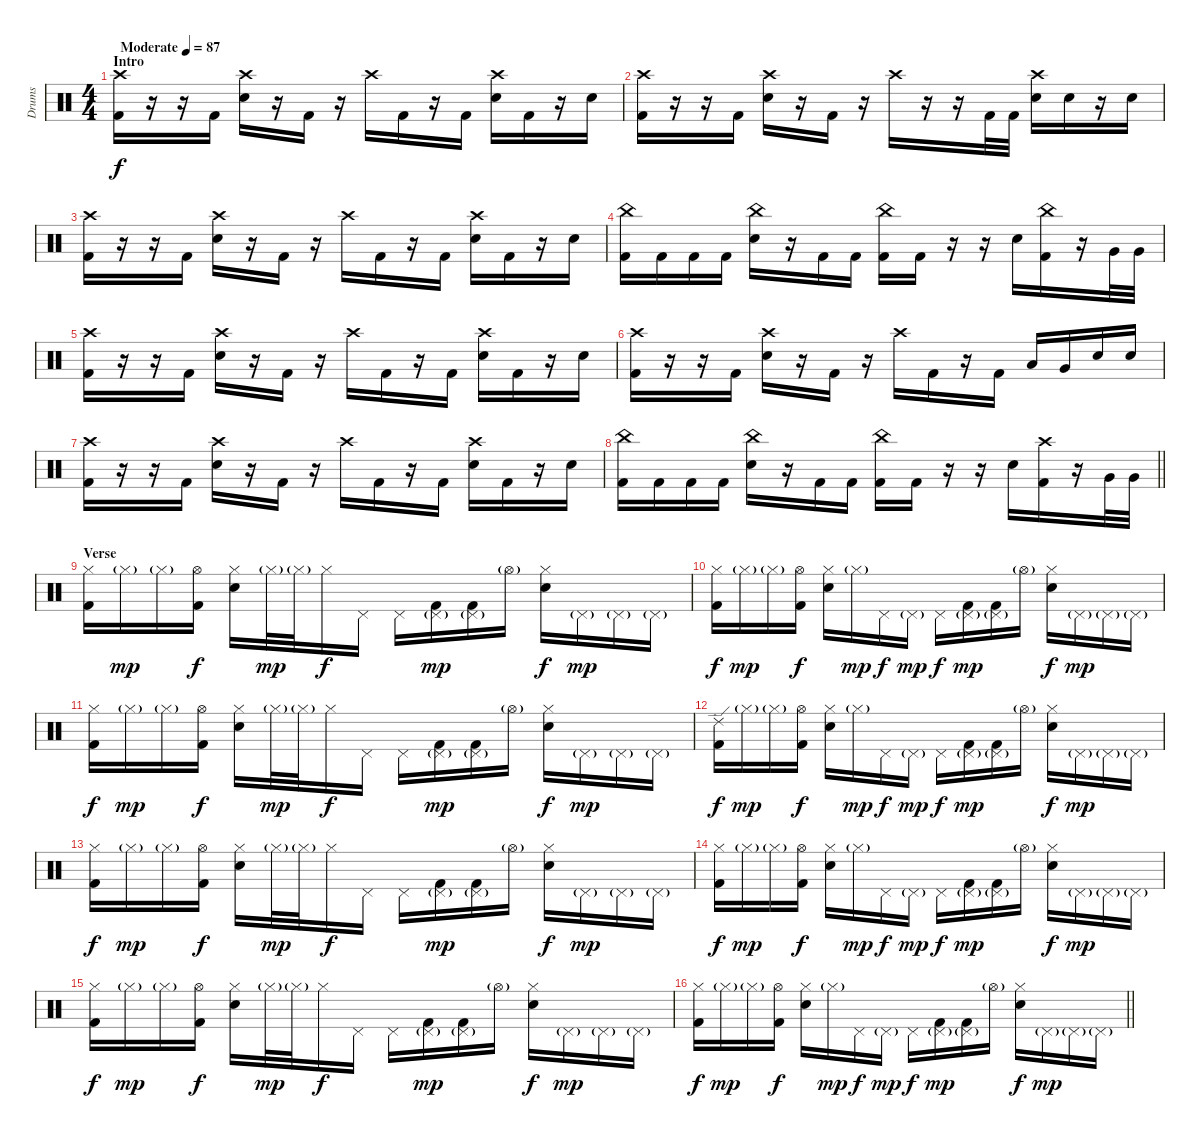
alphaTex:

\track ("Drums" "Drums") {instrument percussion}
\staff {score}
\articulation defaults
\ts (4 4)
\section ("" "Intro")
\tempo (87 "Moderate")
\clef neutral
\ks c
("Crash high (hit)" "Kick (hit) 2").16{dy f} r.16 r.16 "Kick (hit) 2".16 ("Crash high (hit)" "Electric Snare (hit)").16 r.16 "Kick (hit) 2".16 r.16 "Crash high (hit)".16 "Kick (hit) 2".16 r.16 "Kick (hit) 2".16 ("Crash high (hit)" "Electric Snare (hit)").16 "Kick (hit) 2".16 r.16 "Electric Snare (hit)".16 |
("Crash high (hit)" "Kick (hit) 2").16 r.16 r.16 "Kick (hit) 2".16 ("Crash high (hit)" "Electric Snare (hit)").16 r.16 "Kick (hit) 2".16 r.16 "Crash high (hit)".16 r.16 r.16 "Kick (hit) 2".32 "Kick (hit) 2".32 ("Crash high (hit)" "Electric Snare (hit)").16 "Electric Snare (hit)".16 r.16 "Electric Snare (hit)".16 |
("Crash high (hit)" "Kick (hit) 2").16 r.16 r.16 "Kick (hit) 2".16 ("Crash high (hit)" "Electric Snare (hit)").16 r.16 "Kick (hit) 2".16 r.16 "Crash high (hit)".16 "Kick (hit) 2".16 r.16 "Kick (hit) 2".16 ("Crash high (hit)" "Electric Snare (hit)").16 "Kick (hit) 2".16 r.16 "Electric Snare (hit)".16 |
("China (hit)" "Kick (hit) 2").16 "Kick (hit) 2".16 "Kick (hit) 2".16 "Kick (hit) 2".16 ("China (hit)" "Electric Snare (hit)").16 r.16 "Kick (hit) 2".16 "Kick (hit) 2".16 ("China (hit)" "Kick (hit) 2").16 "Kick (hit) 2".16 r.16 r.16 "Electric Snare (hit)".16 ("China (hit)" "Kick (hit) 2").16 r.16 "Very Low Tom (hit)".32 "Very Low Tom (hit)".32 |
("Crash high (hit)" "Kick (hit) 2").16 r.16 r.16 "Kick (hit) 2".16 ("Crash high (hit)" "Electric Snare (hit)").16 r.16 "Kick (hit) 2".16 r.16 "Crash high (hit)".16 "Kick (hit) 2".16 r.16 "Kick (hit) 2".16 ("Crash high (hit)" "Electric Snare (hit)").16 "Kick (hit) 2".16 r.16 "Electric Snare (hit)".16 |
("Crash high (hit)" "Kick (hit) 2").16 r.16 r.16 "Kick (hit) 2".16 ("Crash high (hit)" "Electric Snare (hit)").16 r.16 "Kick (hit) 2".16 r.16 "Crash high (hit)".16 "Kick (hit) 2".16 r.16 "Kick (hit) 2".16 "Low Tom (hit)".16 "Very Low Tom (hit)".16 "Electric Snare (hit)".16 "Electric Snare (hit)".16 |
("Crash high (hit)" "Kick (hit) 2").16 r.16 r.16 "Kick (hit) 2".16 ("Crash high (hit)" "Electric Snare (hit)").16 r.16 "Kick (hit) 2".16 r.16 "Crash high (hit)".16 "Kick (hit) 2".16 r.16 "Kick (hit) 2".16 ("Crash high (hit)" "Electric Snare (hit)").16 "Kick (hit) 2".16 r.16 "Electric Snare (hit)".16 |
\barLineRight lightlight
("China (hit)" "Kick (hit) 2").16 "Kick (hit) 2".16 "Kick (hit) 2".16 "Kick (hit) 2".16 ("China (hit)" "Electric Snare (hit)").16 r.16 "Kick (hit) 2".16 "Kick (hit) 2".16 ("China (hit)" "Kick (hit) 2").16 "Kick (hit) 2".16 r.16 r.16 "Electric Snare (hit)".16 ("Crash high (hit)" "Kick (hit) 2").16 r.16 "Very Low Tom (hit)".32 "Very Low Tom (hit)".32 |
\section ("" "Verse")
("Hi-Hat (closed)" "Kick (hit) 2").16 "Hi-Hat (closed)"{g}.16{dy mp} "Hi-Hat (closed)"{g}.16 ("Hi-Hat (open)" "Kick (hit) 2").16{dy f} ("Hi-Hat (closed)" "Electric Snare (hit)").16 "Hi-Hat (closed)"{g}.32{dy mp} "Hi-Hat (closed)"{g}.32 "Hi-Hat (closed)".16{dy f} "Pedal Hi-Hat (hit)".16 "Pedal Hi-Hat (hit)".16 ("Pedal Hi-Hat (hit)"{g} "Kick (hit) 2").16{dy mp} ("Pedal Hi-Hat (hit)"{g} "Kick (hit) 2").16 "Hi-Hat (open)"{g}.16 ("Hi-Hat (closed)" "Electric Snare (hit)").16{dy f} "Pedal Hi-Hat (hit)"{g}.16{dy mp} "Pedal Hi-Hat (hit)"{g}.16 "Pedal Hi-Hat (hit)"{g}.16 |
("Hi-Hat (closed)" "Kick (hit) 2").16{dy f} "Hi-Hat (closed)"{g}.16{dy mp} "Hi-Hat (closed)"{g}.16 ("Hi-Hat (open)" "Kick (hit) 2").16{dy f} ("Hi-Hat (closed)" "Electric Snare (hit)").16 "Hi-Hat (closed)"{g}.16{dy mp} "Pedal Hi-Hat (hit)".16{dy f} "Pedal Hi-Hat (hit)"{g}.16{dy mp} "Pedal Hi-Hat (hit)".16{dy f} ("Pedal Hi-Hat (hit)"{g} "Kick (hit) 2").16{dy mp} ("Pedal Hi-Hat (hit)"{g} "Kick (hit) 2").16 "Hi-Hat (open)"{g}.16 ("Hi-Hat (closed)" "Electric Snare (hit)").16{dy f} "Pedal Hi-Hat (hit)"{g}.16{dy mp} "Pedal Hi-Hat (hit)"{g}.16 "Pedal Hi-Hat (hit)"{g}.16 |
("Hi-Hat (closed)" "Kick (hit) 2").16{dy f} "Hi-Hat (closed)"{g}.16{dy mp} "Hi-Hat (closed)"{g}.16 ("Hi-Hat (open)" "Kick (hit) 2").16{dy f} ("Hi-Hat (closed)" "Electric Snare (hit)").16 "Hi-Hat (closed)"{g}.32{dy mp} "Hi-Hat (closed)"{g}.32 "Hi-Hat (closed)".16{dy f} "Pedal Hi-Hat (hit)".16 "Pedal Hi-Hat (hit)".16 ("Pedal Hi-Hat (hit)"{g} "Kick (hit) 2").16{dy mp} ("Pedal Hi-Hat (hit)"{g} "Kick (hit) 2").16 "Hi-Hat (open)"{g}.16 ("Hi-Hat (closed)" "Electric Snare (hit)").16{dy f} "Pedal Hi-Hat (hit)"{g}.16{dy mp} "Pedal Hi-Hat (hit)"{g}.16 "Pedal Hi-Hat (hit)"{g}.16 |
("Ride (edge) 2" "Kick (hit) 2").16{dy f} "Hi-Hat (closed)"{g}.16{dy mp} "Hi-Hat (closed)"{g}.16 ("Hi-Hat (open)" "Kick (hit) 2").16{dy f} ("Hi-Hat (closed)" "Electric Snare (hit)").16 "Hi-Hat (closed)"{g}.16{dy mp} "Pedal Hi-Hat (hit)".16{dy f} "Pedal Hi-Hat (hit)"{g}.16{dy mp} "Pedal Hi-Hat (hit)".16{dy f} ("Pedal Hi-Hat (hit)"{g} "Kick (hit) 2").16{dy mp} ("Pedal Hi-Hat (hit)"{g} "Kick (hit) 2").16 "Hi-Hat (open)"{g}.16 ("Hi-Hat (closed)" "Electric Snare (hit)").16{dy f} "Pedal Hi-Hat (hit)"{g}.16{dy mp} "Pedal Hi-Hat (hit)"{g}.16 "Pedal Hi-Hat (hit)"{g}.16 |
("Hi-Hat (closed)" "Kick (hit) 2").16{dy f} "Hi-Hat (closed)"{g}.16{dy mp} "Hi-Hat (closed)"{g}.16 ("Hi-Hat (open)" "Kick (hit) 2").16{dy f} ("Hi-Hat (closed)" "Electric Snare (hit)").16 "Hi-Hat (closed)"{g}.32{dy mp} "Hi-Hat (closed)"{g}.32 "Hi-Hat (closed)".16{dy f} "Pedal Hi-Hat (hit)".16 "Pedal Hi-Hat (hit)".16 ("Pedal Hi-Hat (hit)"{g} "Kick (hit) 2").16{dy mp} ("Pedal Hi-Hat (hit)"{g} "Kick (hit) 2").16 "Hi-Hat (open)"{g}.16 ("Hi-Hat (closed)" "Electric Snare (hit)").16{dy f} "Pedal Hi-Hat (hit)"{g}.16{dy mp} "Pedal Hi-Hat (hit)"{g}.16 "Pedal Hi-Hat (hit)"{g}.16 |
("Hi-Hat (closed)" "Kick (hit) 2").16{dy f} "Hi-Hat (closed)"{g}.16{dy mp} "Hi-Hat (closed)"{g}.16 ("Hi-Hat (open)" "Kick (hit) 2").16{dy f} ("Hi-Hat (closed)" "Electric Snare (hit)").16 "Hi-Hat (closed)"{g}.16{dy mp} "Pedal Hi-Hat (hit)".16{dy f} "Pedal Hi-Hat (hit)"{g}.16{dy mp} "Pedal Hi-Hat (hit)".16{dy f} ("Pedal Hi-Hat (hit)"{g} "Kick (hit) 2").16{dy mp} ("Pedal Hi-Hat (hit)"{g} "Kick (hit) 2").16 "Hi-Hat (open)"{g}.16 ("Hi-Hat (closed)" "Electric Snare (hit)").16{dy f} "Pedal Hi-Hat (hit)"{g}.16{dy mp} "Pedal Hi-Hat (hit)"{g}.16 "Pedal Hi-Hat (hit)"{g}.16 |
("Hi-Hat (closed)" "Kick (hit) 2").16{dy f} "Hi-Hat (closed)"{g}.16{dy mp} "Hi-Hat (closed)"{g}.16 ("Hi-Hat (open)" "Kick (hit) 2").16{dy f} ("Hi-Hat (closed)" "Electric Snare (hit)").16 "Hi-Hat (closed)"{g}.32{dy mp} "Hi-Hat (closed)"{g}.32 "Hi-Hat (closed)".16{dy f} "Pedal Hi-Hat (hit)".16 "Pedal Hi-Hat (hit)".16 ("Pedal Hi-Hat (hit)"{g} "Kick (hit) 2").16{dy mp} ("Pedal Hi-Hat (hit)"{g} "Kick (hit) 2").16 "Hi-Hat (open)"{g}.16 ("Hi-Hat (closed)" "Electric Snare (hit)").16{dy f} "Pedal Hi-Hat (hit)"{g}.16{dy mp} "Pedal Hi-Hat (hit)"{g}.16 "Pedal Hi-Hat (hit)"{g}.16 |
\barLineRight lightlight
("Hi-Hat (closed)" "Kick (hit) 2").16{dy f} "Hi-Hat (closed)"{g}.16{dy mp} "Hi-Hat (closed)"{g}.16 ("Hi-Hat (open)" "Kick (hit) 2").16{dy f} ("Hi-Hat (closed)" "Electric Snare (hit)").16 "Hi-Hat (closed)"{g}.16{dy mp} "Pedal Hi-Hat (hit)".16{dy f} "Pedal Hi-Hat (hit)"{g}.16{dy mp} "Pedal Hi-Hat (hit)".16{dy f} ("Pedal Hi-Hat (hit)"{g} "Kick (hit) 2").16{dy mp} ("Pedal Hi-Hat (hit)"{g} "Kick (hit) 2").16 "Hi-Hat (open)"{g}.16 ("Hi-Hat (closed)" "Electric Snare (hit)").16{dy f} "Pedal Hi-Hat (hit)"{g}.16{dy mp} "Pedal Hi-Hat (hit)"{g}.16 "Pedal Hi-Hat (hit)"{g}.16
